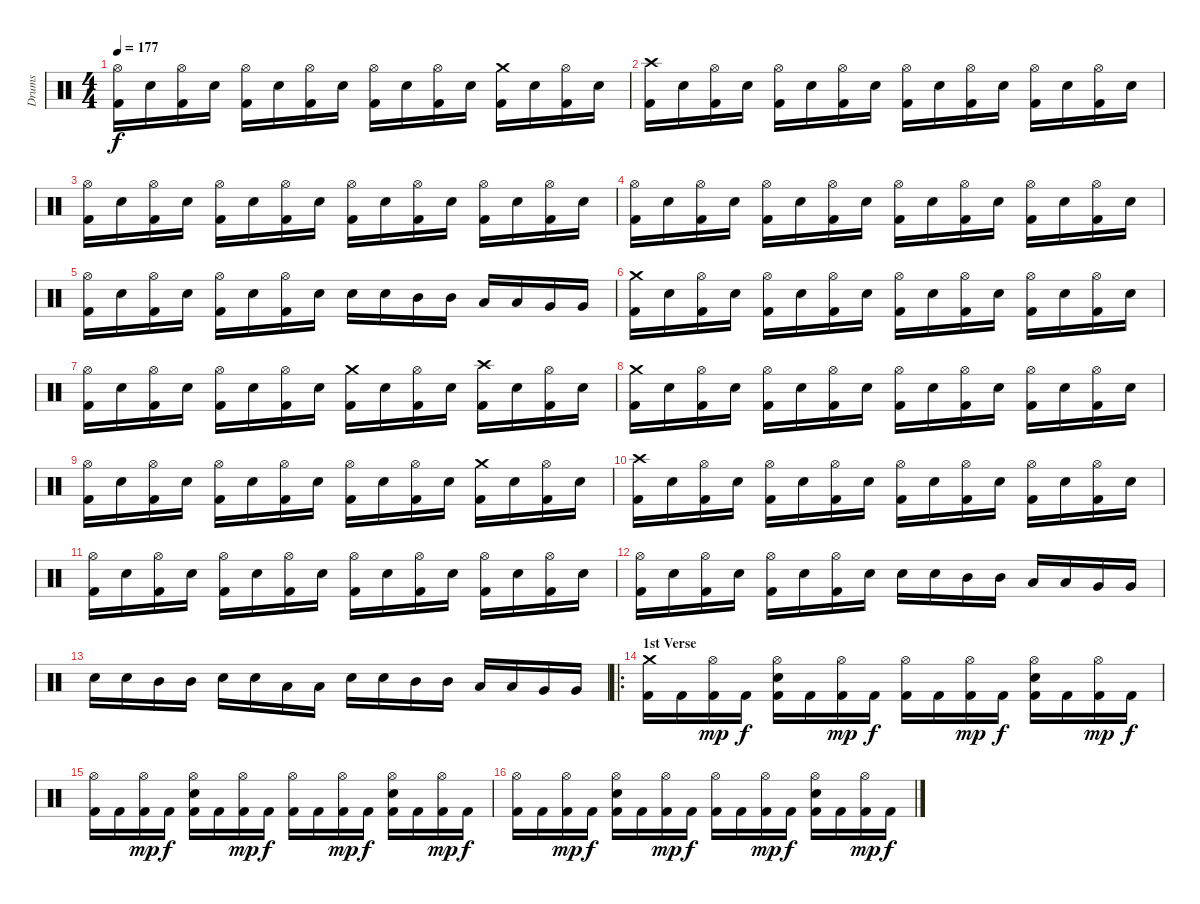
\track ("Drums" "Drums") {instrument percussion}
\staff {score}
\articulation defaults
\ts (4 4)
\tempo 177
\clef neutral
\ks c
("Kick (hit) 2" "Hi-Hat (open)").16{dy f} "Electric Snare (hit)".16 ("Kick (hit) 2" "Hi-Hat (open)").16 "Electric Snare (hit)".16 ("Kick (hit) 2" "Hi-Hat (open)").16 "Electric Snare (hit)".16 ("Kick (hit) 2" "Hi-Hat (open)").16 "Electric Snare (hit)".16 ("Kick (hit) 2" "Hi-Hat (open)").16 "Electric Snare (hit)".16 ("Kick (hit) 2" "Hi-Hat (open)").16 "Electric Snare (hit)".16 ("Kick (hit) 2" "Crash medium (hit)").16 "Electric Snare (hit)".16 ("Kick (hit) 2" "Hi-Hat (open)").16 "Electric Snare (hit)".16 |
("Kick (hit) 2" "Crash high (hit)").16 "Electric Snare (hit)".16 ("Kick (hit) 2" "Hi-Hat (open)").16 "Electric Snare (hit)".16 ("Kick (hit) 2" "Hi-Hat (open)").16 "Electric Snare (hit)".16 ("Kick (hit) 2" "Hi-Hat (open)").16 "Electric Snare (hit)".16 ("Kick (hit) 2" "Hi-Hat (open)").16 "Electric Snare (hit)".16 ("Kick (hit) 2" "Hi-Hat (open)").16 "Electric Snare (hit)".16 ("Kick (hit) 2" "Hi-Hat (open)").16 "Electric Snare (hit)".16 ("Kick (hit) 2" "Hi-Hat (open)").16 "Electric Snare (hit)".16 |
("Kick (hit) 2" "Hi-Hat (open)").16 "Electric Snare (hit)".16 ("Kick (hit) 2" "Hi-Hat (open)").16 "Electric Snare (hit)".16 ("Kick (hit) 2" "Hi-Hat (open)").16 "Electric Snare (hit)".16 ("Kick (hit) 2" "Hi-Hat (open)").16 "Electric Snare (hit)".16 ("Kick (hit) 2" "Hi-Hat (open)").16 "Electric Snare (hit)".16 ("Kick (hit) 2" "Hi-Hat (open)").16 "Electric Snare (hit)".16 ("Kick (hit) 2" "Hi-Hat (open)").16 "Electric Snare (hit)".16 ("Kick (hit) 2" "Hi-Hat (open)").16 "Electric Snare (hit)".16 |
("Kick (hit) 2" "Hi-Hat (open)").16 "Electric Snare (hit)".16 ("Kick (hit) 2" "Hi-Hat (open)").16 "Electric Snare (hit)".16 ("Kick (hit) 2" "Hi-Hat (open)").16 "Electric Snare (hit)".16 ("Kick (hit) 2" "Hi-Hat (open)").16 "Electric Snare (hit)".16 ("Kick (hit) 2" "Hi-Hat (open)").16 "Electric Snare (hit)".16 ("Kick (hit) 2" "Hi-Hat (open)").16 "Electric Snare (hit)".16 ("Kick (hit) 2" "Hi-Hat (open)").16 "Electric Snare (hit)".16 ("Kick (hit) 2" "Hi-Hat (open)").16 "Electric Snare (hit)".16 |
("Kick (hit) 2" "Hi-Hat (open)").16 "Electric Snare (hit)".16 ("Kick (hit) 2" "Hi-Hat (open)").16 "Electric Snare (hit)".16 ("Kick (hit) 2" "Hi-Hat (open)").16 "Electric Snare (hit)".16 ("Kick (hit) 2" "Hi-Hat (open)").16 "Electric Snare (hit)".16 "Electric Snare (hit)".16 "Electric Snare (hit)".16 "Mid Tom (hit)".16 "Mid Tom (hit)".16 "Low Tom (hit)".16 "Low Tom (hit)".16 "Very Low Tom (hit)".16 "Very Low Tom (hit)".16 |
("Kick (hit) 2" "Crash medium (hit)").16 "Electric Snare (hit)".16 ("Kick (hit) 2" "Hi-Hat (open)").16 "Electric Snare (hit)".16 ("Kick (hit) 2" "Hi-Hat (open)").16 "Electric Snare (hit)".16 ("Kick (hit) 2" "Hi-Hat (open)").16 "Electric Snare (hit)".16 ("Kick (hit) 2" "Hi-Hat (open)").16 "Electric Snare (hit)".16 ("Kick (hit) 2" "Hi-Hat (open)").16 "Electric Snare (hit)".16 ("Kick (hit) 2" "Hi-Hat (open)").16 "Electric Snare (hit)".16 ("Kick (hit) 2" "Hi-Hat (open)").16 "Electric Snare (hit)".16 |
("Kick (hit) 2" "Hi-Hat (open)").16 "Electric Snare (hit)".16 ("Kick (hit) 2" "Hi-Hat (open)").16 "Electric Snare (hit)".16 ("Kick (hit) 2" "Hi-Hat (open)").16 "Electric Snare (hit)".16 ("Kick (hit) 2" "Hi-Hat (open)").16 "Electric Snare (hit)".16 ("Kick (hit) 2" "Crash medium (hit)").16 "Electric Snare (hit)".16 ("Kick (hit) 2" "Hi-Hat (open)").16 "Electric Snare (hit)".16 ("Kick (hit) 2" "Crash high (hit)").16 "Electric Snare (hit)".16 ("Kick (hit) 2" "Hi-Hat (open)").16 "Electric Snare (hit)".16 |
("Kick (hit) 2" "Crash medium (hit)").16 "Electric Snare (hit)".16 ("Kick (hit) 2" "Hi-Hat (open)").16 "Electric Snare (hit)".16 ("Kick (hit) 2" "Hi-Hat (open)").16 "Electric Snare (hit)".16 ("Kick (hit) 2" "Hi-Hat (open)").16 "Electric Snare (hit)".16 ("Kick (hit) 2" "Hi-Hat (open)").16 "Electric Snare (hit)".16 ("Kick (hit) 2" "Hi-Hat (open)").16 "Electric Snare (hit)".16 ("Kick (hit) 2" "Hi-Hat (open)").16 "Electric Snare (hit)".16 ("Kick (hit) 2" "Hi-Hat (open)").16 "Electric Snare (hit)".16 |
("Kick (hit) 2" "Hi-Hat (open)").16 "Electric Snare (hit)".16 ("Kick (hit) 2" "Hi-Hat (open)").16 "Electric Snare (hit)".16 ("Kick (hit) 2" "Hi-Hat (open)").16 "Electric Snare (hit)".16 ("Kick (hit) 2" "Hi-Hat (open)").16 "Electric Snare (hit)".16 ("Kick (hit) 2" "Hi-Hat (open)").16 "Electric Snare (hit)".16 ("Kick (hit) 2" "Hi-Hat (open)").16 "Electric Snare (hit)".16 ("Kick (hit) 2" "Crash medium (hit)").16 "Electric Snare (hit)".16 ("Kick (hit) 2" "Hi-Hat (open)").16 "Electric Snare (hit)".16 |
("Kick (hit) 2" "Crash high (hit)").16 "Electric Snare (hit)".16 ("Kick (hit) 2" "Hi-Hat (open)").16 "Electric Snare (hit)".16 ("Kick (hit) 2" "Hi-Hat (open)").16 "Electric Snare (hit)".16 ("Kick (hit) 2" "Hi-Hat (open)").16 "Electric Snare (hit)".16 ("Kick (hit) 2" "Hi-Hat (open)").16 "Electric Snare (hit)".16 ("Kick (hit) 2" "Hi-Hat (open)").16 "Electric Snare (hit)".16 ("Kick (hit) 2" "Hi-Hat (open)").16 "Electric Snare (hit)".16 ("Kick (hit) 2" "Hi-Hat (open)").16 "Electric Snare (hit)".16 |
("Kick (hit) 2" "Hi-Hat (open)").16 "Electric Snare (hit)".16 ("Kick (hit) 2" "Hi-Hat (open)").16 "Electric Snare (hit)".16 ("Kick (hit) 2" "Hi-Hat (open)").16 "Electric Snare (hit)".16 ("Kick (hit) 2" "Hi-Hat (open)").16 "Electric Snare (hit)".16 ("Kick (hit) 2" "Hi-Hat (open)").16 "Electric Snare (hit)".16 ("Kick (hit) 2" "Hi-Hat (open)").16 "Electric Snare (hit)".16 ("Kick (hit) 2" "Hi-Hat (open)").16 "Electric Snare (hit)".16 ("Kick (hit) 2" "Hi-Hat (open)").16 "Electric Snare (hit)".16 |
("Kick (hit) 2" "Hi-Hat (open)").16 "Electric Snare (hit)".16 ("Kick (hit) 2" "Hi-Hat (open)").16 "Electric Snare (hit)".16 ("Kick (hit) 2" "Hi-Hat (open)").16 "Electric Snare (hit)".16 ("Kick (hit) 2" "Hi-Hat (open)").16 "Electric Snare (hit)".16 "Electric Snare (hit)".16 "Electric Snare (hit)".16 "Mid Tom (hit)".16 "Mid Tom (hit)".16 "Low Tom (hit)".16 "Low Tom (hit)".16 "Very Low Tom (hit)".16 "Very Low Tom (hit)".16 |
"Electric Snare (hit)".16 "Electric Snare (hit)".16 "Mid Tom (hit)".16 "Mid Tom (hit)".16 "Electric Snare (hit)".16 "Electric Snare (hit)".16 "Low Tom (hit)".16 "Low Tom (hit)".16 "Electric Snare (hit)".16 "Electric Snare (hit)".16 "Mid Tom (hit)".16 "Mid Tom (hit)".16 "Low Tom (hit)".16 "Low Tom (hit)".16 "Very Low Tom (hit)".16 "Very Low Tom (hit)".16 |
\ro
\section ("" "1st Verse")
("Kick (hit) 2" "Crash medium (hit)").16 "Kick (hit) 2".16 ("Kick (hit) 2" "Hi-Hat (open)").16{dy mp} "Kick (hit) 2".16{dy f} ("Kick (hit) 2" "Electric Snare (hit)" "Hi-Hat (open)").16 "Kick (hit) 2".16 ("Kick (hit) 2" "Hi-Hat (open)").16{dy mp} "Kick (hit) 2".16{dy f} ("Kick (hit) 2" "Hi-Hat (open)").16 "Kick (hit) 2".16 ("Kick (hit) 2" "Hi-Hat (open)").16{dy mp} "Kick (hit) 2".16{dy f} ("Kick (hit) 2" "Electric Snare (hit)" "Hi-Hat (open)").16 "Kick (hit) 2".16 ("Kick (hit) 2" "Hi-Hat (open)").16{dy mp} "Kick (hit) 2".16{dy f} |
("Kick (hit) 2" "Hi-Hat (open)").16 "Kick (hit) 2".16 ("Kick (hit) 2" "Hi-Hat (open)").16{dy mp} "Kick (hit) 2".16{dy f} ("Kick (hit) 2" "Electric Snare (hit)" "Hi-Hat (open)").16 "Kick (hit) 2".16 ("Kick (hit) 2" "Hi-Hat (open)").16{dy mp} "Kick (hit) 2".16{dy f} ("Kick (hit) 2" "Hi-Hat (open)").16 "Kick (hit) 2".16 ("Kick (hit) 2" "Hi-Hat (open)").16{dy mp} "Kick (hit) 2".16{dy f} ("Kick (hit) 2" "Electric Snare (hit)" "Hi-Hat (open)").16 "Kick (hit) 2".16 ("Kick (hit) 2" "Hi-Hat (open)").16{dy mp} "Kick (hit) 2".16{dy f} |
("Kick (hit) 2" "Hi-Hat (open)").16 "Kick (hit) 2".16 ("Kick (hit) 2" "Hi-Hat (open)").16{dy mp} "Kick (hit) 2".16{dy f} ("Kick (hit) 2" "Electric Snare (hit)" "Hi-Hat (open)").16 "Kick (hit) 2".16 ("Kick (hit) 2" "Hi-Hat (open)").16{dy mp} "Kick (hit) 2".16{dy f} ("Kick (hit) 2" "Hi-Hat (open)").16 "Kick (hit) 2".16 ("Kick (hit) 2" "Hi-Hat (open)").16{dy mp} "Kick (hit) 2".16{dy f} ("Kick (hit) 2" "Electric Snare (hit)" "Hi-Hat (open)").16 "Kick (hit) 2".16 ("Kick (hit) 2" "Hi-Hat (open)").16{dy mp} "Kick (hit) 2".16{dy f}
